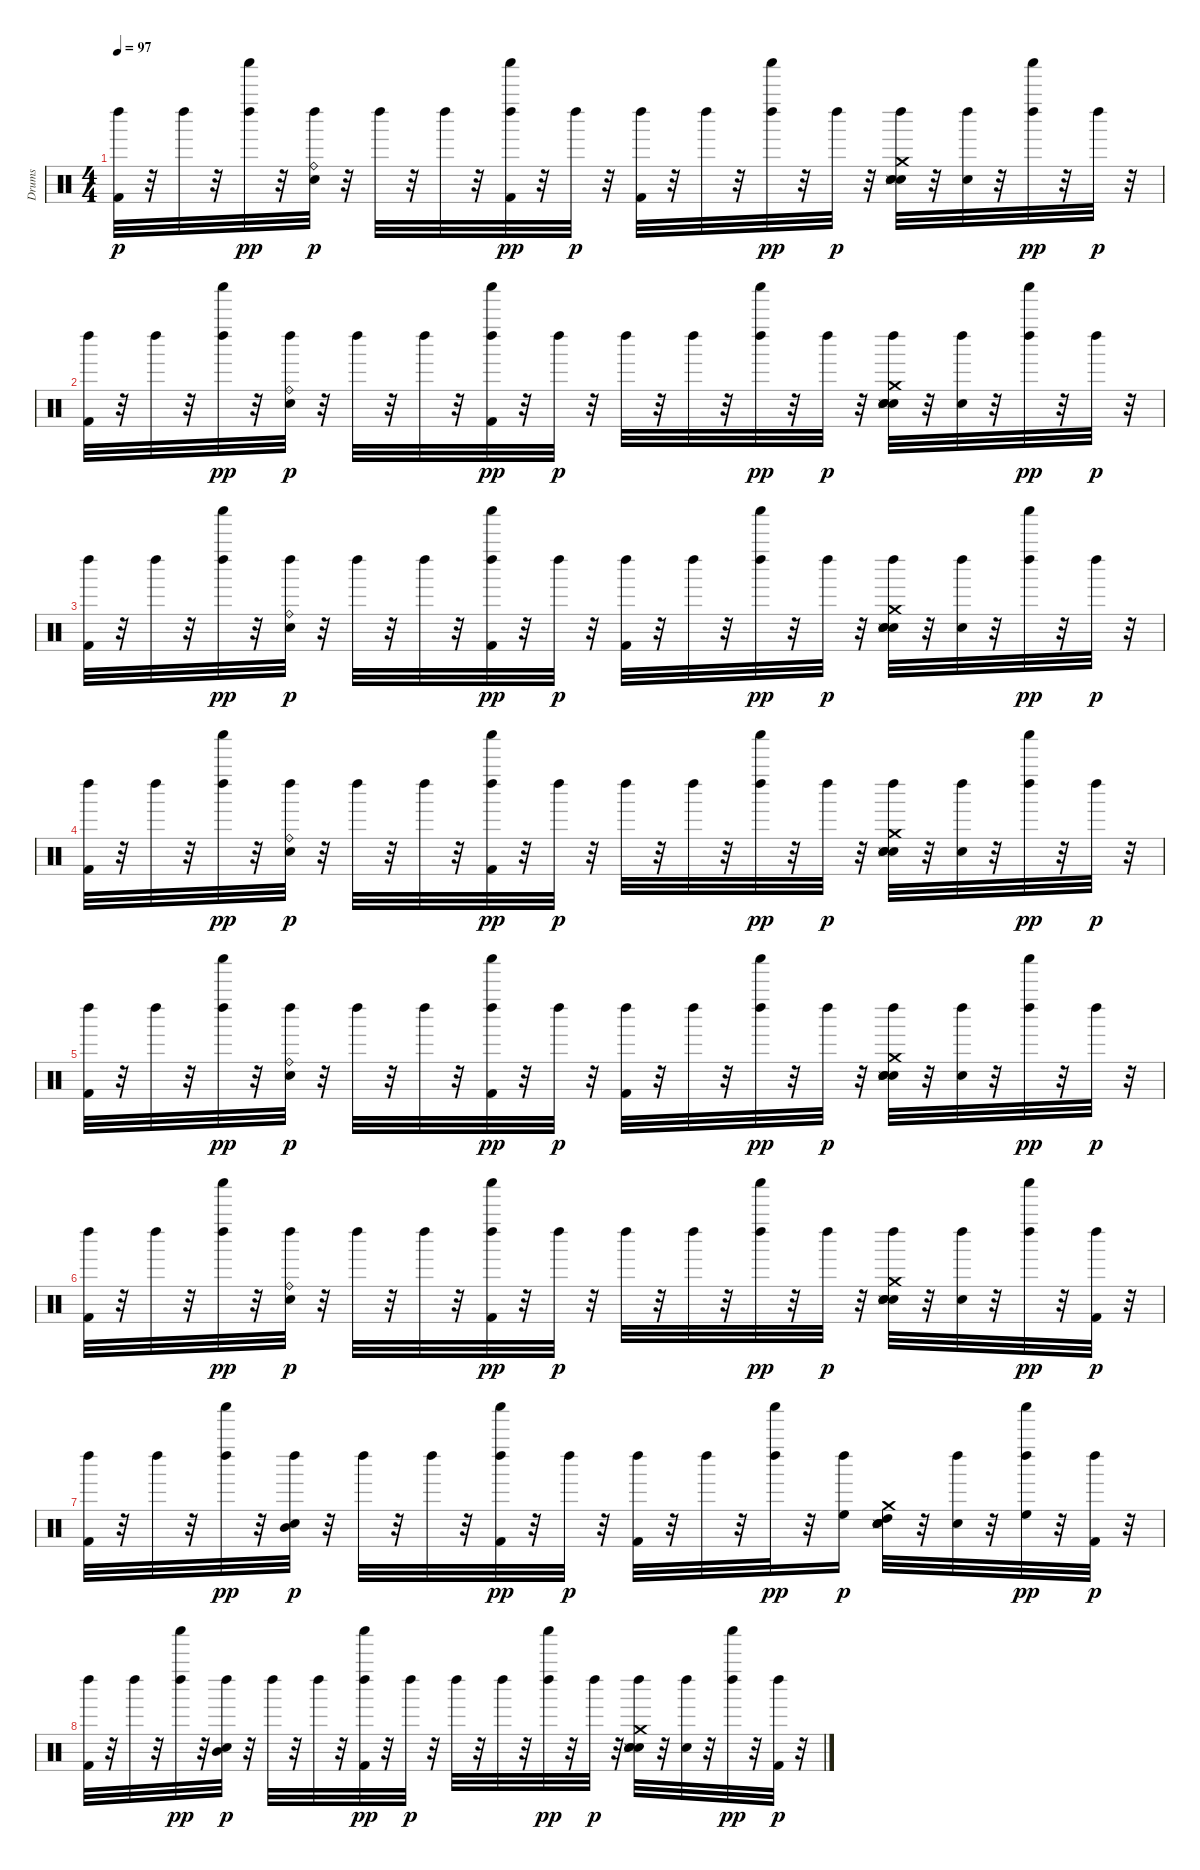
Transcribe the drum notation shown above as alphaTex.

\track ("Drums" "Drums") {instrument percussion}
\staff {score}
\articulation defaults
\ts (4 4)
\tempo 97
\clef neutral
\ks c
("Kick (hit) 2" "Left Maraca (hit)").32{dy p} r.32 "Left Maraca (hit)".32 r.32 ("Shaker (hit)" "Left Maraca (hit)").32{dy pp} r.32 ("Ride (bell)" "Snare (hit) 2" "Left Maraca (hit)").32{dy p} r.32 "Left Maraca (hit)".32 r.32 "Left Maraca (hit)".32 r.32 ("Kick (hit) 2" "Shaker (hit)" "Left Maraca (hit)").32{dy pp} r.32 "Left Maraca (hit)".32{dy p} r.32 ("Kick (hit) 2" "Left Maraca (hit)").32 r.32 "Left Maraca (hit)".32 r.32 ("Shaker (hit)" "Left Maraca (hit)").32{dy pp} r.32 "Left Maraca (hit)".32{dy p} r.32 ("Snare (hit) 2" "Electric Snare (hit)" "Hand Clap (hit)" "Snare (side stick) 3" "Crash medium (hit)" "Left Maraca (hit)").32 r.32 ("Left Maraca (hit)" "Hand Clap (hit)").32 r.32 ("Shaker (hit)" "Left Maraca (hit)").32{dy pp} r.32 "Left Maraca (hit)".32{dy p} r.32 |
("Kick (hit) 2" "Left Maraca (hit)").32 r.32 "Left Maraca (hit)".32 r.32 ("Shaker (hit)" "Left Maraca (hit)").32{dy pp} r.32 ("Ride (bell)" "Snare (hit) 2" "Left Maraca (hit)").32{dy p} r.32 "Left Maraca (hit)".32 r.32 "Left Maraca (hit)".32 r.32 ("Kick (hit) 2" "Shaker (hit)" "Left Maraca (hit)").32{dy pp} r.32 "Left Maraca (hit)".32{dy p} r.32 "Left Maraca (hit)".32 r.32 "Left Maraca (hit)".32 r.32 ("Shaker (hit)" "Left Maraca (hit)").32{dy pp} r.32 "Left Maraca (hit)".32{dy p} r.32 ("Snare (hit) 2" "Electric Snare (hit)" "Hand Clap (hit)" "Snare (side stick) 3" "Crash medium (hit)" "Left Maraca (hit)").32 r.32 ("Left Maraca (hit)" "Hand Clap (hit)").32 r.32 ("Shaker (hit)" "Left Maraca (hit)").32{dy pp} r.32 "Left Maraca (hit)".32{dy p} r.32 |
("Kick (hit) 2" "Left Maraca (hit)").32 r.32 "Left Maraca (hit)".32 r.32 ("Shaker (hit)" "Left Maraca (hit)").32{dy pp} r.32 ("Ride (bell)" "Snare (hit) 2" "Left Maraca (hit)").32{dy p} r.32 "Left Maraca (hit)".32 r.32 "Left Maraca (hit)".32 r.32 ("Kick (hit) 2" "Shaker (hit)" "Left Maraca (hit)").32{dy pp} r.32 "Left Maraca (hit)".32{dy p} r.32 ("Kick (hit) 2" "Left Maraca (hit)").32 r.32 "Left Maraca (hit)".32 r.32 ("Shaker (hit)" "Left Maraca (hit)").32{dy pp} r.32 "Left Maraca (hit)".32{dy p} r.32 ("Snare (hit) 2" "Electric Snare (hit)" "Hand Clap (hit)" "Snare (side stick) 3" "Crash medium (hit)" "Left Maraca (hit)").32 r.32 ("Left Maraca (hit)" "Hand Clap (hit)").32 r.32 ("Shaker (hit)" "Left Maraca (hit)").32{dy pp} r.32 "Left Maraca (hit)".32{dy p} r.32 |
("Kick (hit) 2" "Left Maraca (hit)").32 r.32 "Left Maraca (hit)".32 r.32 ("Shaker (hit)" "Left Maraca (hit)").32{dy pp} r.32 ("Ride (bell)" "Snare (hit) 2" "Left Maraca (hit)").32{dy p} r.32 "Left Maraca (hit)".32 r.32 "Left Maraca (hit)".32 r.32 ("Kick (hit) 2" "Shaker (hit)" "Left Maraca (hit)").32{dy pp} r.32 "Left Maraca (hit)".32{dy p} r.32 "Left Maraca (hit)".32 r.32 "Left Maraca (hit)".32 r.32 ("Shaker (hit)" "Left Maraca (hit)").32{dy pp} r.32 "Left Maraca (hit)".32{dy p} r.32 ("Snare (hit) 2" "Electric Snare (hit)" "Hand Clap (hit)" "Snare (side stick) 3" "Crash medium (hit)" "Left Maraca (hit)").32 r.32 ("Left Maraca (hit)" "Hand Clap (hit)").32 r.32 ("Shaker (hit)" "Left Maraca (hit)").32{dy pp} r.32 "Left Maraca (hit)".32{dy p} r.32 |
("Kick (hit) 2" "Left Maraca (hit)").32 r.32 "Left Maraca (hit)".32 r.32 ("Shaker (hit)" "Left Maraca (hit)").32{dy pp} r.32 ("Ride (bell)" "Snare (hit) 2" "Left Maraca (hit)").32{dy p} r.32 "Left Maraca (hit)".32 r.32 "Left Maraca (hit)".32 r.32 ("Kick (hit) 2" "Shaker (hit)" "Left Maraca (hit)").32{dy pp} r.32 "Left Maraca (hit)".32{dy p} r.32 ("Kick (hit) 2" "Left Maraca (hit)").32 r.32 "Left Maraca (hit)".32 r.32 ("Shaker (hit)" "Left Maraca (hit)").32{dy pp} r.32 "Left Maraca (hit)".32{dy p} r.32 ("Snare (hit) 2" "Electric Snare (hit)" "Hand Clap (hit)" "Snare (side stick) 3" "Crash medium (hit)" "Left Maraca (hit)").32 r.32 ("Left Maraca (hit)" "Hand Clap (hit)").32 r.32 ("Shaker (hit)" "Left Maraca (hit)").32{dy pp} r.32 "Left Maraca (hit)".32{dy p} r.32 |
("Kick (hit) 2" "Left Maraca (hit)").32 r.32 "Left Maraca (hit)".32 r.32 ("Shaker (hit)" "Left Maraca (hit)").32{dy pp} r.32 ("Ride (bell)" "Snare (hit) 2" "Left Maraca (hit)").32{dy p} r.32 "Left Maraca (hit)".32 r.32 "Left Maraca (hit)".32 r.32 ("Kick (hit) 2" "Shaker (hit)" "Left Maraca (hit)").32{dy pp} r.32 "Left Maraca (hit)".32{dy p} r.32 "Left Maraca (hit)".32 r.32 "Left Maraca (hit)".32 r.32 ("Shaker (hit)" "Left Maraca (hit)").32{dy pp} r.32 "Left Maraca (hit)".32{dy p} r.32 ("Snare (hit) 2" "Electric Snare (hit)" "Hand Clap (hit)" "Snare (side stick) 3" "Crash medium (hit)" "Left Maraca (hit)").32 r.32 ("Left Maraca (hit)" "Hand Clap (hit)").32 r.32 ("Shaker (hit)" "Left Maraca (hit)").32{dy pp} r.32 ("Kick (hit) 2" "Left Maraca (hit)").32{dy p} r.32 |
("Kick (hit) 2" "Left Maraca (hit)").32 r.32 "Left Maraca (hit)".32 r.32 ("Shaker (hit)" "Left Maraca (hit)").32{dy pp} r.32 ("Snare (hit) 2" "Mid Tom (hit)" "Left Maraca (hit)").32{dy p} r.32 "Left Maraca (hit)".32 r.32 "Left Maraca (hit)".32 r.32 ("Kick (hit) 2" "Shaker (hit)" "Left Maraca (hit)").32{dy pp} r.32 "Left Maraca (hit)".32{dy p} r.32 ("Kick (hit) 2" "Left Maraca (hit)").32 r.32 "Left Maraca (hit)".32 r.32 ("Shaker (hit)" "Left Maraca (hit)").32{dy pp} r.32 ("High Floor Tom (hit)" "Left Maraca (hit)").16{dy p} ("Snare (hit) 2" "Electric Snare (hit)" "Hand Clap (hit)" "High Tom (hit)" "Snare (side stick) 3" "Crash medium (hit)").32 r.32 ("Left Maraca (hit)" "Hand Clap (hit)").32 r.32 ("High Floor Tom (hit)" "Shaker (hit)" "Left Maraca (hit)").32{dy pp} r.32 ("Kick (hit) 2" "Left Maraca (hit)").32{dy p} r.32 |
("Kick (hit) 2" "Left Maraca (hit)").32 r.32 "Left Maraca (hit)".32 r.32 ("Shaker (hit)" "Left Maraca (hit)").32{dy pp} r.32 ("Snare (hit) 2" "Mid Tom (hit)" "Left Maraca (hit)").32{dy p} r.32 "Left Maraca (hit)".32 r.32 "Left Maraca (hit)".32 r.32 ("Kick (hit) 2" "Shaker (hit)" "Left Maraca (hit)").32{dy pp} r.32 "Left Maraca (hit)".32{dy p} r.32 "Left Maraca (hit)".32 r.32 "Left Maraca (hit)".32 r.32 ("Shaker (hit)" "Left Maraca (hit)").32{dy pp} r.32 "Left Maraca (hit)".32{dy p} r.32 ("Snare (hit) 2" "Electric Snare (hit)" "Hand Clap (hit)" "Snare (side stick) 3" "Crash medium (hit)" "Left Maraca (hit)").32 r.32 ("Left Maraca (hit)" "Hand Clap (hit)").32 r.32 ("Shaker (hit)" "Left Maraca (hit)").32{dy pp} r.32 ("Kick (hit) 2" "Left Maraca (hit)").32{dy p} r.32
